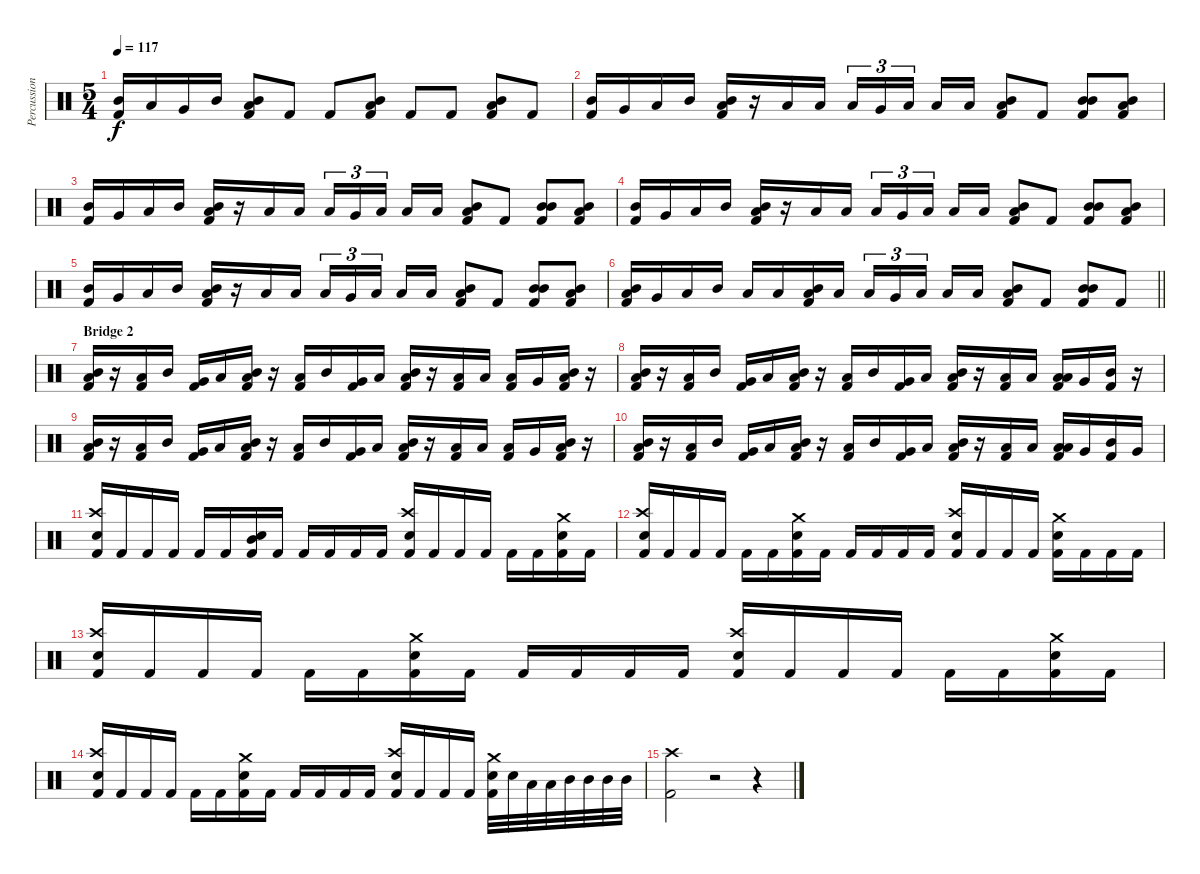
\track ("Percussion" "Percussion") {instrument percussion}
\staff {score}
\articulation defaults
\ts (5 4)
\tempo 117
\clef neutral
\ks c
("Mid Tom (hit)" "Kick (hit) 2").16{dy f} "Low Tom (hit)".16 "Very Low Tom (hit)".16 "Mid Tom (hit)".16 ("Low Tom (hit)" "Mid Tom (hit)" "Kick (hit) 2").8 "Kick (hit) 2".8 "Kick (hit) 2".8 ("Low Tom (hit)" "Mid Tom (hit)" "Kick (hit) 2").8 "Kick (hit) 2".8 "Kick (hit) 2".8 ("Low Tom (hit)" "Mid Tom (hit)" "Kick (hit) 2").8 "Kick (hit) 2".8 |
("Mid Tom (hit)" "Kick (hit) 2").16 "Very Low Tom (hit)".16 "Low Tom (hit)".16 "Mid Tom (hit)".16 ("Mid Tom (hit)" "Low Tom (hit)" "Kick (hit) 2").16 r.16 "Low Tom (hit)".16 "Low Tom (hit)".16 "Low Tom (hit)".16{tu (3 2)} "Very Low Tom (hit)".16{tu (3 2)} "Low Tom (hit)".16{tu (3 2) beam splitsecondary} "Low Tom (hit)".16 "Low Tom (hit)".16 ("Mid Tom (hit)" "Low Tom (hit)" "Kick (hit) 2").8 "Kick (hit) 2".8 ("Mid Tom (hit)" "Mid Tom (hit)" "Kick (hit) 2").8 ("Mid Tom (hit)" "Low Tom (hit)" "Kick (hit) 2").8 |
("Mid Tom (hit)" "Kick (hit) 2").16 "Very Low Tom (hit)".16 "Low Tom (hit)".16 "Mid Tom (hit)".16 ("Mid Tom (hit)" "Low Tom (hit)" "Kick (hit) 2").16 r.16 "Low Tom (hit)".16 "Low Tom (hit)".16 "Low Tom (hit)".16{tu (3 2)} "Very Low Tom (hit)".16{tu (3 2)} "Low Tom (hit)".16{tu (3 2) beam splitsecondary} "Low Tom (hit)".16 "Low Tom (hit)".16 ("Mid Tom (hit)" "Low Tom (hit)" "Kick (hit) 2").8 "Kick (hit) 2".8 ("Mid Tom (hit)" "Mid Tom (hit)" "Kick (hit) 2").8 ("Mid Tom (hit)" "Low Tom (hit)" "Kick (hit) 2").8 |
("Mid Tom (hit)" "Kick (hit) 2").16 "Very Low Tom (hit)".16 "Low Tom (hit)".16 "Mid Tom (hit)".16 ("Mid Tom (hit)" "Low Tom (hit)" "Kick (hit) 2").16 r.16 "Low Tom (hit)".16 "Low Tom (hit)".16 "Low Tom (hit)".16{tu (3 2)} "Very Low Tom (hit)".16{tu (3 2)} "Low Tom (hit)".16{tu (3 2) beam splitsecondary} "Low Tom (hit)".16 "Low Tom (hit)".16 ("Mid Tom (hit)" "Low Tom (hit)" "Kick (hit) 2").8 "Kick (hit) 2".8 ("Mid Tom (hit)" "Mid Tom (hit)" "Kick (hit) 2").8 ("Mid Tom (hit)" "Low Tom (hit)" "Kick (hit) 2").8 |
("Mid Tom (hit)" "Kick (hit) 2").16 "Very Low Tom (hit)".16 "Low Tom (hit)".16 "Mid Tom (hit)".16 ("Mid Tom (hit)" "Low Tom (hit)" "Kick (hit) 2").16 r.16 "Low Tom (hit)".16 "Low Tom (hit)".16 "Low Tom (hit)".16{tu (3 2)} "Very Low Tom (hit)".16{tu (3 2)} "Low Tom (hit)".16{tu (3 2) beam splitsecondary} "Low Tom (hit)".16 "Low Tom (hit)".16 ("Mid Tom (hit)" "Low Tom (hit)" "Kick (hit) 2").8 "Kick (hit) 2".8 ("Mid Tom (hit)" "Mid Tom (hit)" "Kick (hit) 2").8 ("Mid Tom (hit)" "Low Tom (hit)" "Kick (hit) 2").8 |
\barLineRight lightlight
("Low Tom (hit)" "Mid Tom (hit)" "Kick (hit) 2").16 "Very Low Tom (hit)".16 "Low Tom (hit)".16 "Mid Tom (hit)".16 "Low Tom (hit)".16 "Low Tom (hit)".16 ("Mid Tom (hit)" "Low Tom (hit)" "Kick (hit) 2").16 "Low Tom (hit)".16 "Low Tom (hit)".16{tu (3 2)} "Very Low Tom (hit)".16{tu (3 2)} "Low Tom (hit)".16{tu (3 2) beam splitsecondary} "Low Tom (hit)".16 "Low Tom (hit)".16 ("Mid Tom (hit)" "Low Tom (hit)" "Kick (hit) 2").8 "Kick (hit) 2".8 ("Mid Tom (hit)" "Mid Tom (hit)" "Kick (hit) 2").8 "Kick (hit) 2".8 |
\section ("" "Bridge 2")
("Low Tom (hit)" "Mid Tom (hit)" "Kick (hit) 2").16 r.16 ("Low Tom (hit)" "Kick (hit) 2").16 "Mid Tom (hit)".16 ("Very Low Tom (hit)" "Kick (hit) 2").16 "Low Tom (hit)".16 ("Low Tom (hit)" "Mid Tom (hit)" "Kick (hit) 2").16 r.16 ("Low Tom (hit)" "Kick (hit) 2").16 "Mid Tom (hit)".16 ("Very Low Tom (hit)" "Kick (hit) 2").16 "Low Tom (hit)".16 ("Low Tom (hit)" "Mid Tom (hit)" "Kick (hit) 2").16 r.16 ("Low Tom (hit)" "Kick (hit) 2").16 "Low Tom (hit)".16 ("Low Tom (hit)" "Kick (hit) 2").16 "Very Low Tom (hit)".16 ("Low Tom (hit)" "Mid Tom (hit)" "Kick (hit) 2").16 r.16 |
("Low Tom (hit)" "Mid Tom (hit)" "Kick (hit) 2").16 r.16 ("Low Tom (hit)" "Kick (hit) 2").16 "Mid Tom (hit)".16 ("Very Low Tom (hit)" "Kick (hit) 2").16 "Low Tom (hit)".16 ("Low Tom (hit)" "Mid Tom (hit)" "Kick (hit) 2").16 r.16 ("Low Tom (hit)" "Kick (hit) 2").16 "Mid Tom (hit)".16 ("Very Low Tom (hit)" "Kick (hit) 2").16 "Low Tom (hit)".16 ("Low Tom (hit)" "Mid Tom (hit)" "Kick (hit) 2").16 r.16 ("Low Tom (hit)" "Kick (hit) 2").16 "Low Tom (hit)".16 ("Low Tom (hit)" "Low Tom (hit)" "Kick (hit) 2").16 "Very Low Tom (hit)".16 ("Mid Tom (hit)" "Kick (hit) 2").16 r.16 |
("Low Tom (hit)" "Mid Tom (hit)" "Kick (hit) 2").16 r.16 ("Low Tom (hit)" "Kick (hit) 2").16 "Mid Tom (hit)".16 ("Very Low Tom (hit)" "Kick (hit) 2").16 "Low Tom (hit)".16 ("Low Tom (hit)" "Mid Tom (hit)" "Kick (hit) 2").16 r.16 ("Low Tom (hit)" "Kick (hit) 2").16 "Mid Tom (hit)".16 ("Very Low Tom (hit)" "Kick (hit) 2").16 "Low Tom (hit)".16 ("Low Tom (hit)" "Mid Tom (hit)" "Kick (hit) 2").16 r.16 ("Low Tom (hit)" "Kick (hit) 2").16 "Low Tom (hit)".16 ("Low Tom (hit)" "Kick (hit) 2").16 "Very Low Tom (hit)".16 ("Low Tom (hit)" "Mid Tom (hit)" "Kick (hit) 2").16 r.16 |
("Low Tom (hit)" "Mid Tom (hit)" "Kick (hit) 2").16 r.16 ("Low Tom (hit)" "Kick (hit) 2").16 "Mid Tom (hit)".16 ("Very Low Tom (hit)" "Kick (hit) 2").16 "Low Tom (hit)".16 ("Low Tom (hit)" "Mid Tom (hit)" "Kick (hit) 2").16 r.16 ("Low Tom (hit)" "Kick (hit) 2").16 "Mid Tom (hit)".16 ("Very Low Tom (hit)" "Kick (hit) 2").16 "Low Tom (hit)".16 ("Low Tom (hit)" "Mid Tom (hit)" "Kick (hit) 2").16 r.16 ("Low Tom (hit)" "Kick (hit) 2").16 "Low Tom (hit)".16 ("Low Tom (hit)" "Low Tom (hit)" "Kick (hit) 2").16 "Very Low Tom (hit)".16 ("Mid Tom (hit)" "Kick (hit) 2").16 "Very Low Tom (hit)".16 |
("Crash high (hit)" "Electric Snare (hit)" "Kick (hit) 2").16 "Kick (hit) 2".16 "Kick (hit) 2".16 "Kick (hit) 2".16 "Kick (hit) 2".16 "Kick (hit) 2".16 ("Mid Tom (hit)" "Electric Snare (hit)" "Kick (hit) 2").16 "Kick (hit) 2".16 "Kick (hit) 2".16 "Kick (hit) 2".16 "Kick (hit) 2".16 "Kick (hit) 2".16 ("Crash high (hit)" "Electric Snare (hit)" "Kick (hit) 2").16 "Kick (hit) 2".16 "Kick (hit) 2".16 "Kick (hit) 2".16 "Kick (hit) 2".16 "Kick (hit) 2".16 ("Crash medium (hit)" "Electric Snare (hit)" "Kick (hit) 2").16 "Kick (hit) 2".16 |
("Crash high (hit)" "Electric Snare (hit)" "Kick (hit) 2").16 "Kick (hit) 2".16 "Kick (hit) 2".16 "Kick (hit) 2".16 "Kick (hit) 2".16 "Kick (hit) 2".16 ("Crash medium (hit)" "Electric Snare (hit)" "Kick (hit) 2").16 "Kick (hit) 2".16 "Kick (hit) 2".16 "Kick (hit) 2".16 "Kick (hit) 2".16 "Kick (hit) 2".16 ("Crash high (hit)" "Electric Snare (hit)" "Kick (hit) 2").16 "Kick (hit) 2".16 "Kick (hit) 2".16 "Kick (hit) 2".16 ("Crash medium (hit)" "Electric Snare (hit)" "Kick (hit) 2").16 "Kick (hit) 2".16 "Kick (hit) 2".16 "Kick (hit) 2".16 |
("Crash high (hit)" "Electric Snare (hit)" "Kick (hit) 2").16 "Kick (hit) 2".16 "Kick (hit) 2".16 "Kick (hit) 2".16 "Kick (hit) 2".16 "Kick (hit) 2".16 ("Crash medium (hit)" "Electric Snare (hit)" "Kick (hit) 2").16 "Kick (hit) 2".16 "Kick (hit) 2".16 "Kick (hit) 2".16 "Kick (hit) 2".16 "Kick (hit) 2".16 ("Crash high (hit)" "Electric Snare (hit)" "Kick (hit) 2").16 "Kick (hit) 2".16 "Kick (hit) 2".16 "Kick (hit) 2".16 "Kick (hit) 2".16 "Kick (hit) 2".16 ("Crash medium (hit)" "Electric Snare (hit)" "Kick (hit) 2").16 "Kick (hit) 2".16 |
("Crash high (hit)" "Electric Snare (hit)" "Kick (hit) 2").16 "Kick (hit) 2".16 "Kick (hit) 2".16 "Kick (hit) 2".16 "Kick (hit) 2".16 "Kick (hit) 2".16 ("Crash medium (hit)" "Electric Snare (hit)" "Kick (hit) 2").16 "Kick (hit) 2".16 "Kick (hit) 2".16 "Kick (hit) 2".16 "Kick (hit) 2".16 "Kick (hit) 2".16 ("Crash high (hit)" "Electric Snare (hit)" "Kick (hit) 2").16 "Kick (hit) 2".16 "Kick (hit) 2".16 "Kick (hit) 2".16 ("Crash medium (hit)" "Electric Snare (hit)" "Kick (hit) 2").32 "Electric Snare (hit)".32 "Low Tom (hit)".32 "Low Tom (hit)".32 "Mid Tom (hit)".32 "Mid Tom (hit)".32 "Mid Tom (hit)".32 "Mid Tom (hit)".32 |
("Crash high (hit)" "Kick (hit) 2").2 r.2 r.4
